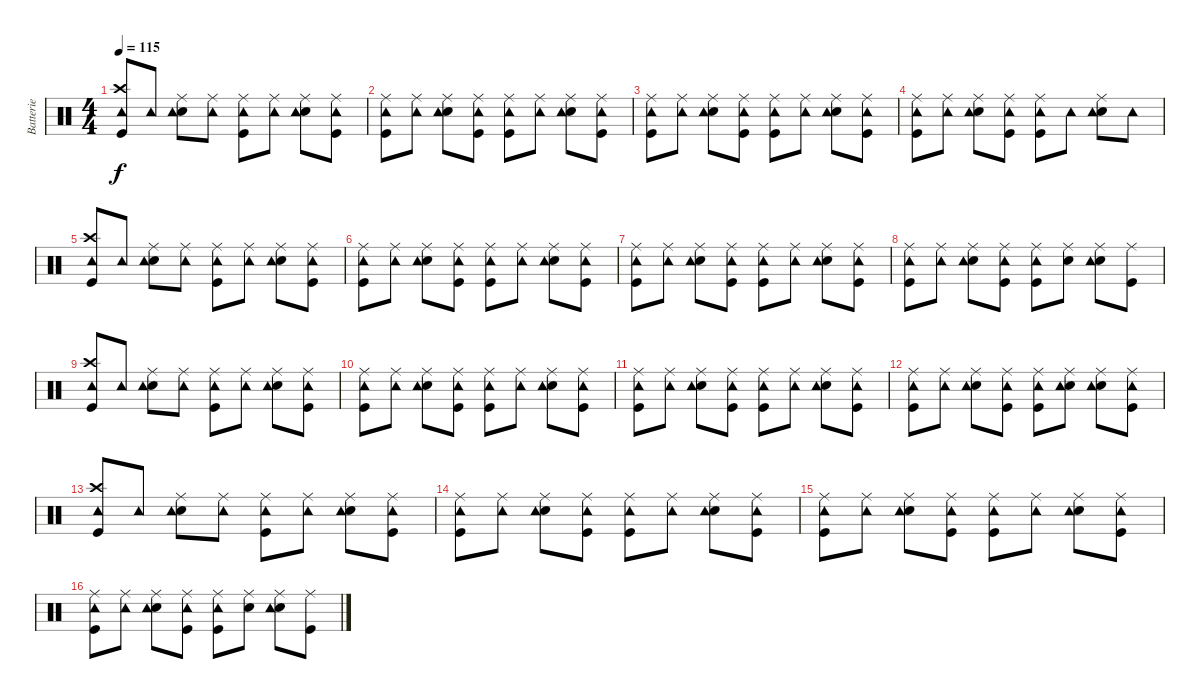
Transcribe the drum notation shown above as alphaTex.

\track ("Batterie" "Batterie") {instrument percussion}
\staff {score}
\articulation defaults
\ts (4 4)
\tempo 115
\clef neutral
\ks c
("Kick (hit)" "Crash high (hit)" "Tambourine (hit)").8{dy f} "Tambourine (hit)".8 ("Electric Snare (hit)" "Ride (middle)" "Tambourine (hit)").8 ("Ride (middle)" "Tambourine (hit)").8 ("Ride (middle)" "Kick (hit)" "Tambourine (hit)").8 ("Ride (middle)" "Tambourine (hit)").8 ("Electric Snare (hit)" "Ride (middle)" "Tambourine (hit)").8 ("Kick (hit)" "Ride (middle)" "Tambourine (hit)").8 |
("Kick (hit)" "Ride (middle)" "Tambourine (hit)").8 ("Ride (middle)" "Tambourine (hit)").8 ("Ride (middle)" "Electric Snare (hit)" "Tambourine (hit)").8 ("Kick (hit)" "Ride (middle)" "Tambourine (hit)").8 ("Kick (hit)" "Ride (middle)" "Tambourine (hit)").8 ("Ride (middle)" "Tambourine (hit)").8 ("Electric Snare (hit)" "Ride (middle)" "Tambourine (hit)").8 ("Kick (hit)" "Ride (middle)" "Tambourine (hit)").8 |
("Kick (hit)" "Ride (middle)" "Tambourine (hit)").8 ("Ride (middle)" "Tambourine (hit)").8 ("Electric Snare (hit)" "Ride (middle)" "Tambourine (hit)").8 ("Kick (hit)" "Ride (middle)" "Tambourine (hit)").8 ("Kick (hit)" "Ride (middle)" "Tambourine (hit)").8 ("Ride (middle)" "Tambourine (hit)").8 ("Electric Snare (hit)" "Ride (middle)" "Tambourine (hit)").8 ("Ride (middle)" "Kick (hit)" "Tambourine (hit)").8 |
("Ride (middle)" "Kick (hit)" "Tambourine (hit)").8 ("Ride (middle)" "Tambourine (hit)").8 ("Electric Snare (hit)" "Ride (middle)" "Tambourine (hit)").8 ("Kick (hit)" "Ride (middle)" "Tambourine (hit)").8 ("Kick (hit)" "Ride (middle)" "Tambourine (hit)").8 "Tambourine (hit)".8 ("Ride (middle)" "Electric Snare (hit)" "Tambourine (hit)").8 "Tambourine (hit)".8 |
("Kick (hit)" "Crash high (hit)" "Tambourine (hit)").8 "Tambourine (hit)".8 ("Ride (middle)" "Electric Snare (hit)" "Tambourine (hit)").8 ("Ride (middle)" "Tambourine (hit)").8 ("Kick (hit)" "Ride (middle)" "Tambourine (hit)").8 ("Ride (middle)" "Tambourine (hit)").8 ("Ride (middle)" "Electric Snare (hit)" "Tambourine (hit)").8 ("Ride (middle)" "Kick (hit)" "Tambourine (hit)").8 |
("Kick (hit)" "Ride (middle)" "Tambourine (hit)").8 ("Ride (middle)" "Tambourine (hit)").8 ("Electric Snare (hit)" "Ride (middle)" "Tambourine (hit)").8 ("Ride (middle)" "Kick (hit)" "Tambourine (hit)").8 ("Kick (hit)" "Ride (middle)" "Tambourine (hit)").8 ("Ride (middle)" "Tambourine (hit)").8 ("Electric Snare (hit)" "Ride (middle)" "Tambourine (hit)").8 ("Kick (hit)" "Ride (middle)" "Tambourine (hit)").8 |
("Kick (hit)" "Ride (middle)" "Tambourine (hit)").8 ("Ride (middle)" "Tambourine (hit)").8 ("Electric Snare (hit)" "Ride (middle)" "Tambourine (hit)").8 ("Kick (hit)" "Ride (middle)" "Tambourine (hit)").8 ("Ride (middle)" "Kick (hit)" "Tambourine (hit)").8 ("Ride (middle)" "Tambourine (hit)").8 ("Electric Snare (hit)" "Ride (middle)" "Tambourine (hit)").8 ("Kick (hit)" "Ride (middle)" "Tambourine (hit)").8 |
("Kick (hit)" "Ride (middle)" "Tambourine (hit)").8 ("Ride (middle)" "Tambourine (hit)").8 ("Ride (middle)" "Electric Snare (hit)" "Tambourine (hit)").8 ("Ride (middle)" "Kick (hit)" "Tambourine (hit)").8 ("Ride (middle)" "Kick (hit)" "Tambourine (hit)").8 ("Ride (middle)" "Electric Snare (hit)").8 ("Ride (middle)" "Electric Snare (hit)" "Tambourine (hit)").8 ("Kick (hit)" "Ride (middle)").8 |
("Kick (hit)" "Crash high (hit)" "Tambourine (hit)").8 "Tambourine (hit)".8 ("Ride (middle)" "Electric Snare (hit)" "Tambourine (hit)").8 ("Ride (middle)" "Tambourine (hit)").8 ("Kick (hit)" "Ride (middle)" "Tambourine (hit)").8 ("Ride (middle)" "Tambourine (hit)").8 ("Electric Snare (hit)" "Ride (middle)" "Tambourine (hit)").8 ("Kick (hit)" "Ride (middle)" "Tambourine (hit)").8 |
("Kick (hit)" "Ride (middle)" "Tambourine (hit)").8 ("Ride (middle)" "Tambourine (hit)").8 ("Ride (middle)" "Electric Snare (hit)" "Tambourine (hit)").8 ("Kick (hit)" "Ride (middle)" "Tambourine (hit)").8 ("Kick (hit)" "Ride (middle)" "Tambourine (hit)").8 ("Ride (middle)" "Tambourine (hit)").8 ("Ride (middle)" "Electric Snare (hit)" "Tambourine (hit)").8 ("Ride (middle)" "Kick (hit)" "Tambourine (hit)").8 |
("Kick (hit)" "Ride (middle)" "Tambourine (hit)").8 ("Ride (middle)" "Tambourine (hit)").8 ("Electric Snare (hit)" "Ride (middle)" "Tambourine (hit)").8 ("Kick (hit)" "Ride (middle)" "Tambourine (hit)").8 ("Kick (hit)" "Ride (middle)" "Tambourine (hit)").8 ("Ride (middle)" "Tambourine (hit)").8 ("Ride (middle)" "Electric Snare (hit)" "Tambourine (hit)").8 ("Kick (hit)" "Ride (middle)" "Tambourine (hit)").8 |
("Kick (hit)" "Ride (middle)" "Tambourine (hit)").8 ("Ride (middle)" "Tambourine (hit)").8 ("Electric Snare (hit)" "Ride (middle)" "Tambourine (hit)").8 ("Kick (hit)" "Ride (middle)" "Tambourine (hit)").8 ("Kick (hit)" "Ride (middle)" "Tambourine (hit)").8 ("Ride (middle)" "Electric Snare (hit)" "Tambourine (hit)").8 ("Electric Snare (hit)" "Ride (middle)" "Tambourine (hit)").8 ("Kick (hit)" "Ride (middle)" "Tambourine (hit)").8 |
("Crash high (hit)" "Kick (hit)" "Tambourine (hit)").8 "Tambourine (hit)".8 ("Electric Snare (hit)" "Ride (middle)" "Tambourine (hit)").8 ("Ride (middle)" "Tambourine (hit)").8 ("Ride (middle)" "Kick (hit)" "Tambourine (hit)").8 ("Ride (middle)" "Tambourine (hit)").8 ("Ride (middle)" "Electric Snare (hit)" "Tambourine (hit)").8 ("Kick (hit)" "Ride (middle)" "Tambourine (hit)").8 |
("Kick (hit)" "Ride (middle)" "Tambourine (hit)").8 ("Ride (middle)" "Tambourine (hit)").8 ("Electric Snare (hit)" "Ride (middle)" "Tambourine (hit)").8 ("Kick (hit)" "Ride (middle)" "Tambourine (hit)").8 ("Kick (hit)" "Ride (middle)" "Tambourine (hit)").8 ("Ride (middle)" "Tambourine (hit)").8 ("Ride (middle)" "Electric Snare (hit)" "Tambourine (hit)").8 ("Kick (hit)" "Ride (middle)" "Tambourine (hit)").8 |
("Kick (hit)" "Ride (middle)" "Tambourine (hit)").8 ("Ride (middle)" "Tambourine (hit)").8 ("Electric Snare (hit)" "Ride (middle)" "Tambourine (hit)").8 ("Kick (hit)" "Ride (middle)" "Tambourine (hit)").8 ("Kick (hit)" "Ride (middle)" "Tambourine (hit)").8 ("Ride (middle)" "Tambourine (hit)").8 ("Ride (middle)" "Electric Snare (hit)" "Tambourine (hit)").8 ("Kick (hit)" "Ride (middle)" "Tambourine (hit)").8 |
("Kick (hit)" "Ride (middle)" "Tambourine (hit)").8 ("Ride (middle)" "Tambourine (hit)").8 ("Electric Snare (hit)" "Ride (middle)" "Tambourine (hit)").8 ("Kick (hit)" "Ride (middle)" "Tambourine (hit)").8 ("Kick (hit)" "Ride (middle)" "Tambourine (hit)").8 ("Electric Snare (hit)" "Ride (middle)").8 ("Ride (middle)" "Electric Snare (hit)" "Tambourine (hit)").8 ("Ride (middle)" "Kick (hit)").8
